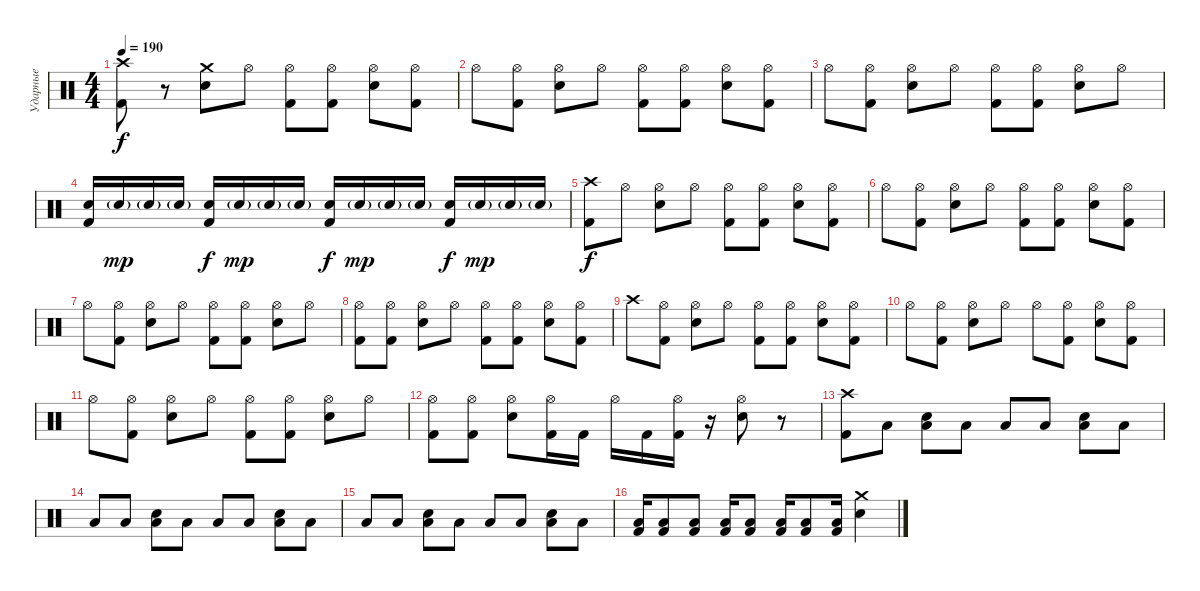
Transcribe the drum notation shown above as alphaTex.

\track ("Ударные" "Ударные") {instrument percussion}
\staff {score}
\articulation defaults
\ts (4 4)
\tempo 190
\clef neutral
\ks c
("Crash high (hit)" "Kick (hit) 2").8{dy f} r.8 ("Crash medium (hit)" "Electric Snare (hit)").8 "Hi-Hat (open)".8 ("Hi-Hat (open)" "Kick (hit) 2").8 ("Hi-Hat (open)" "Kick (hit) 2").8 ("Hi-Hat (open)" "Electric Snare (hit)").8 ("Hi-Hat (open)" "Kick (hit) 2").8 |
"Hi-Hat (open)".8 ("Hi-Hat (open)" "Kick (hit) 2").8 ("Hi-Hat (open)" "Electric Snare (hit)").8 "Hi-Hat (open)".8 ("Hi-Hat (open)" "Kick (hit) 2").8 ("Hi-Hat (open)" "Kick (hit) 2").8 ("Hi-Hat (open)" "Electric Snare (hit)").8 ("Hi-Hat (open)" "Kick (hit) 2").8 |
"Hi-Hat (open)".8 ("Hi-Hat (open)" "Kick (hit) 2").8 ("Hi-Hat (open)" "Electric Snare (hit)").8 "Hi-Hat (open)".8 ("Hi-Hat (open)" "Kick (hit) 2").8 ("Hi-Hat (open)" "Kick (hit) 2").8 ("Hi-Hat (open)" "Electric Snare (hit)").8 "Hi-Hat (open)".8 |
("Electric Snare (hit)" "Kick (hit) 2").16 "Electric Snare (hit)"{g}.16{dy mp} "Electric Snare (hit)"{g}.16 "Electric Snare (hit)"{g}.16 ("Electric Snare (hit)" "Kick (hit) 2").16{dy f} "Electric Snare (hit)"{g}.16{dy mp} "Electric Snare (hit)"{g}.16 "Electric Snare (hit)"{g}.16 ("Electric Snare (hit)" "Kick (hit) 2").16{dy f} "Electric Snare (hit)"{g}.16{dy mp} "Electric Snare (hit)"{g}.16 "Electric Snare (hit)"{g}.16 ("Electric Snare (hit)" "Kick (hit) 2").16{dy f} "Electric Snare (hit)"{g}.16{dy mp} "Electric Snare (hit)"{g}.16 "Electric Snare (hit)"{g}.16 |
("Crash high (hit)" "Kick (hit) 2").8{dy f} "Hi-Hat (open)".8 ("Hi-Hat (open)" "Electric Snare (hit)").8 "Hi-Hat (open)".8 ("Hi-Hat (open)" "Kick (hit) 2").8 ("Hi-Hat (open)" "Kick (hit) 2").8 ("Hi-Hat (open)" "Electric Snare (hit)").8 ("Hi-Hat (open)" "Kick (hit) 2").8 |
"Hi-Hat (open)".8 ("Hi-Hat (open)" "Kick (hit) 2").8 ("Hi-Hat (open)" "Electric Snare (hit)").8 "Hi-Hat (open)".8 ("Hi-Hat (open)" "Kick (hit) 2").8 ("Hi-Hat (open)" "Kick (hit) 2").8 ("Hi-Hat (open)" "Electric Snare (hit)").8 ("Hi-Hat (open)" "Kick (hit) 2").8 |
"Hi-Hat (open)".8 ("Hi-Hat (open)" "Kick (hit) 2").8 ("Hi-Hat (open)" "Electric Snare (hit)").8 "Hi-Hat (open)".8 ("Hi-Hat (open)" "Kick (hit) 2").8 ("Hi-Hat (open)" "Kick (hit) 2").8 ("Hi-Hat (open)" "Electric Snare (hit)").8 "Hi-Hat (open)".8 |
("Hi-Hat (open)" "Kick (hit) 2").8 ("Hi-Hat (open)" "Kick (hit) 2").8 ("Hi-Hat (open)" "Electric Snare (hit)").8 "Hi-Hat (open)".8 ("Hi-Hat (open)" "Kick (hit) 2").8 ("Hi-Hat (open)" "Kick (hit) 2").8 ("Hi-Hat (open)" "Electric Snare (hit)").8 ("Hi-Hat (open)" "Kick (hit) 2").8 |
"Crash high (hit)".8 ("Hi-Hat (open)" "Kick (hit) 2").8 ("Hi-Hat (open)" "Electric Snare (hit)").8 "Hi-Hat (open)".8 ("Hi-Hat (open)" "Kick (hit) 2").8 ("Hi-Hat (open)" "Kick (hit) 2").8 ("Hi-Hat (open)" "Electric Snare (hit)").8 ("Hi-Hat (open)" "Kick (hit) 2").8 |
"Hi-Hat (open)".8 ("Hi-Hat (open)" "Kick (hit) 2").8 ("Hi-Hat (open)" "Electric Snare (hit)").8 "Hi-Hat (open)".8 "Hi-Hat (open)".8 ("Hi-Hat (open)" "Kick (hit) 2").8 ("Hi-Hat (open)" "Electric Snare (hit)").8 ("Hi-Hat (open)" "Kick (hit) 2").8 |
"Hi-Hat (open)".8 ("Hi-Hat (open)" "Kick (hit) 2").8 ("Hi-Hat (open)" "Electric Snare (hit)").8 "Hi-Hat (open)".8 ("Hi-Hat (open)" "Kick (hit) 2").8 ("Hi-Hat (open)" "Kick (hit) 2").8 ("Hi-Hat (open)" "Electric Snare (hit)").8 "Hi-Hat (open)".8 |
("Hi-Hat (open)" "Kick (hit) 2").8 ("Hi-Hat (open)" "Kick (hit) 2").8 ("Hi-Hat (open)" "Electric Snare (hit)").8 ("Hi-Hat (open)" "Kick (hit) 2").16 "Kick (hit) 2".16 "Hi-Hat (open)".16 "Kick (hit) 2".16 ("Hi-Hat (open)" "Kick (hit) 2").16 r.16 ("Hi-Hat (open)" "Electric Snare (hit)").8 r.8 |
("Crash high (hit)" "Kick (hit) 2").8 "Low Tom (hit)".8 ("Electric Snare (hit)" "Low Tom (hit)").8 "Low Tom (hit)".8 "Low Tom (hit)".8 "Low Tom (hit)".8 ("Electric Snare (hit)" "Low Tom (hit)").8 "Low Tom (hit)".8 |
"Low Tom (hit)".8 "Low Tom (hit)".8 ("Electric Snare (hit)" "Low Tom (hit)").8 "Low Tom (hit)".8 "Low Tom (hit)".8 "Low Tom (hit)".8 ("Electric Snare (hit)" "Low Tom (hit)").8 "Low Tom (hit)".8 |
"Low Tom (hit)".8 "Low Tom (hit)".8 ("Electric Snare (hit)" "Low Tom (hit)").8 "Low Tom (hit)".8 "Low Tom (hit)".8 "Low Tom (hit)".8 ("Electric Snare (hit)" "Low Tom (hit)").8 "Low Tom (hit)".8 |
("Low Tom (hit)" "Kick (hit) 2").16 ("Low Tom (hit)" "Kick (hit) 2").8 ("Low Tom (hit)" "Kick (hit) 2").8 ("Low Tom (hit)" "Kick (hit) 2").16 ("Low Tom (hit)" "Kick (hit) 2").8 ("Low Tom (hit)" "Kick (hit) 2").16 ("Low Tom (hit)" "Kick (hit) 2").8 ("Low Tom (hit)" "Kick (hit) 2").16 ("Crash medium (hit)" "Electric Snare (hit)").4
